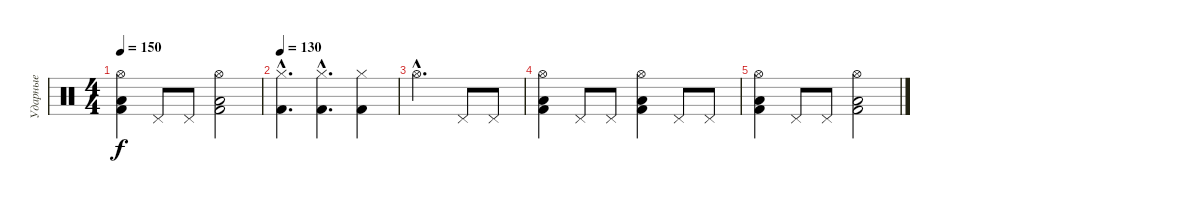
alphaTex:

\track ("Ударные" "Ударные") {instrument percussion}
\staff {score}
\articulation defaults
\ts (4 4)
\tempo 150
\clef neutral
\ks c
("Low Floor Tom (hit)" "Kick (hit) 2" "Hi-Hat (open)").4{dy f} "Pedal Hi-Hat (hit)".8 "Pedal Hi-Hat (hit)".8 ("Low Floor Tom (hit)" "Kick (hit) 2" "Hi-Hat (open)").2 |
\tempo 130
("Hi-Hat (closed)"{hac} "Kick (hit) 2"{hac}).4{d} ("Kick (hit) 2"{hac} "Hi-Hat (closed)"{hac}).4{d} ("Hi-Hat (closed)" "Kick (hit) 2").4 |
"Hi-Hat (open)"{hac}.2{d} "Pedal Hi-Hat (hit)".8 "Pedal Hi-Hat (hit)".8 |
("Low Floor Tom (hit)" "Kick (hit) 2" "Hi-Hat (open)").4 "Pedal Hi-Hat (hit)".8 "Pedal Hi-Hat (hit)".8 ("Low Floor Tom (hit)" "Hi-Hat (open)" "Kick (hit) 2").4 "Pedal Hi-Hat (hit)".8 "Pedal Hi-Hat (hit)".8 |
("Low Floor Tom (hit)" "Kick (hit) 2" "Hi-Hat (open)").4 "Pedal Hi-Hat (hit)".8 "Pedal Hi-Hat (hit)".8 ("Low Floor Tom (hit)" "Kick (hit) 2" "Hi-Hat (open)").2
